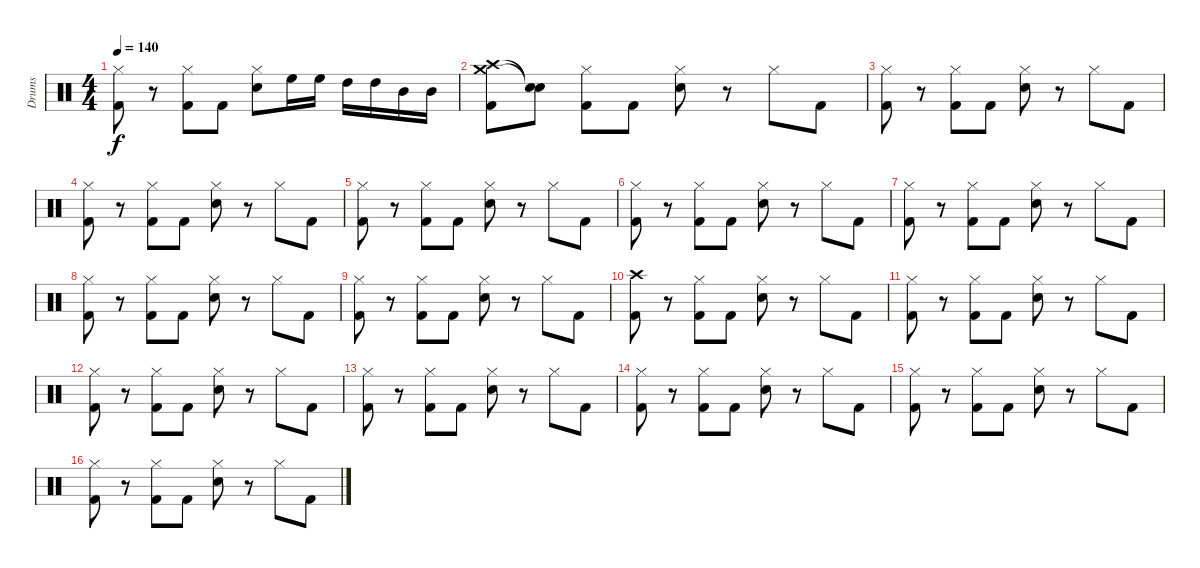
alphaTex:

\track ("Drums" "Drums") {instrument percussion}
\staff {score}
\articulation defaults
\ts (4 4)
\tempo 140
\clef neutral
\ks c
("Hi-Hat (closed)" "Kick (hit) 2").8{dy f} r.8 ("Hi-Hat (closed)" "Kick (hit) 2").8 "Kick (hit) 2".8 ("Hi-Hat (closed)" "Snare (hit) 2").8 "High Floor Tom (hit)".16 "High Floor Tom (hit)".16 "High Tom (hit)".16 "High Tom (hit)".16 "Mid Tom (hit)".16 "Mid Tom (hit)".16 |
("Crash high (hit)" "Crash medium (hit)" "Kick (hit) 2").8 ("Snare (hit)"{t} "Snare (hit)"{t}).8 ("Hi-Hat (closed)" "Kick (hit) 2").8 "Kick (hit) 2".8 ("Hi-Hat (closed)" "Snare (hit) 2").8 r.8 "Hi-Hat (closed)".8 "Kick (hit) 2".8 |
("Hi-Hat (closed)" "Kick (hit) 2").8 r.8 ("Hi-Hat (closed)" "Kick (hit) 2").8 "Kick (hit) 2".8 ("Hi-Hat (closed)" "Snare (hit) 2").8 r.8 "Hi-Hat (closed)".8 "Kick (hit) 2".8 |
("Hi-Hat (closed)" "Kick (hit) 2").8 r.8 ("Hi-Hat (closed)" "Kick (hit) 2").8 "Kick (hit) 2".8 ("Hi-Hat (closed)" "Snare (hit) 2").8 r.8 "Hi-Hat (closed)".8 "Kick (hit) 2".8 |
("Hi-Hat (closed)" "Kick (hit) 2").8 r.8 ("Hi-Hat (closed)" "Kick (hit) 2").8 "Kick (hit) 2".8 ("Hi-Hat (closed)" "Snare (hit) 2").8 r.8 "Hi-Hat (closed)".8 "Kick (hit) 2".8 |
("Hi-Hat (closed)" "Kick (hit) 2").8 r.8 ("Hi-Hat (closed)" "Kick (hit) 2").8 "Kick (hit) 2".8 ("Hi-Hat (closed)" "Snare (hit) 2").8 r.8 "Hi-Hat (closed)".8 "Kick (hit) 2".8 |
("Hi-Hat (closed)" "Kick (hit) 2").8 r.8 ("Hi-Hat (closed)" "Kick (hit) 2").8 "Kick (hit) 2".8 ("Hi-Hat (closed)" "Snare (hit) 2").8 r.8 "Hi-Hat (closed)".8 "Kick (hit) 2".8 |
("Hi-Hat (closed)" "Kick (hit) 2").8 r.8 ("Hi-Hat (closed)" "Kick (hit) 2").8 "Kick (hit) 2".8 ("Hi-Hat (closed)" "Snare (hit) 2").8 r.8 "Hi-Hat (closed)".8 "Kick (hit) 2".8 |
("Hi-Hat (closed)" "Kick (hit) 2").8 r.8 ("Hi-Hat (closed)" "Kick (hit) 2").8 "Kick (hit) 2".8 ("Hi-Hat (closed)" "Snare (hit) 2").8 r.8 "Hi-Hat (closed)".8 "Kick (hit) 2".8 |
("Crash high (hit)" "Kick (hit) 2").8 r.8 ("Hi-Hat (closed)" "Kick (hit) 2").8 "Kick (hit) 2".8 ("Hi-Hat (closed)" "Snare (hit) 2").8 r.8 "Hi-Hat (closed)".8 "Kick (hit) 2".8 |
("Hi-Hat (closed)" "Kick (hit) 2").8 r.8 ("Hi-Hat (closed)" "Kick (hit) 2").8 "Kick (hit) 2".8 ("Hi-Hat (closed)" "Snare (hit) 2").8 r.8 "Hi-Hat (closed)".8 "Kick (hit) 2".8 |
("Hi-Hat (closed)" "Kick (hit) 2").8 r.8 ("Hi-Hat (closed)" "Kick (hit) 2").8 "Kick (hit) 2".8 ("Hi-Hat (closed)" "Snare (hit) 2").8 r.8 "Hi-Hat (closed)".8 "Kick (hit) 2".8 |
("Hi-Hat (closed)" "Kick (hit) 2").8 r.8 ("Hi-Hat (closed)" "Kick (hit) 2").8 "Kick (hit) 2".8 ("Hi-Hat (closed)" "Snare (hit) 2").8 r.8 "Hi-Hat (closed)".8 "Kick (hit) 2".8 |
("Hi-Hat (closed)" "Kick (hit) 2").8 r.8 ("Hi-Hat (closed)" "Kick (hit) 2").8 "Kick (hit) 2".8 ("Hi-Hat (closed)" "Snare (hit) 2").8 r.8 "Hi-Hat (closed)".8 "Kick (hit) 2".8 |
("Hi-Hat (closed)" "Kick (hit) 2").8 r.8 ("Hi-Hat (closed)" "Kick (hit) 2").8 "Kick (hit) 2".8 ("Hi-Hat (closed)" "Snare (hit) 2").8 r.8 "Hi-Hat (closed)".8 "Kick (hit) 2".8 |
("Hi-Hat (closed)" "Kick (hit) 2").8 r.8 ("Hi-Hat (closed)" "Kick (hit) 2").8 "Kick (hit) 2".8 ("Hi-Hat (closed)" "Snare (hit) 2").8 r.8 "Hi-Hat (closed)".8 "Kick (hit) 2".8
